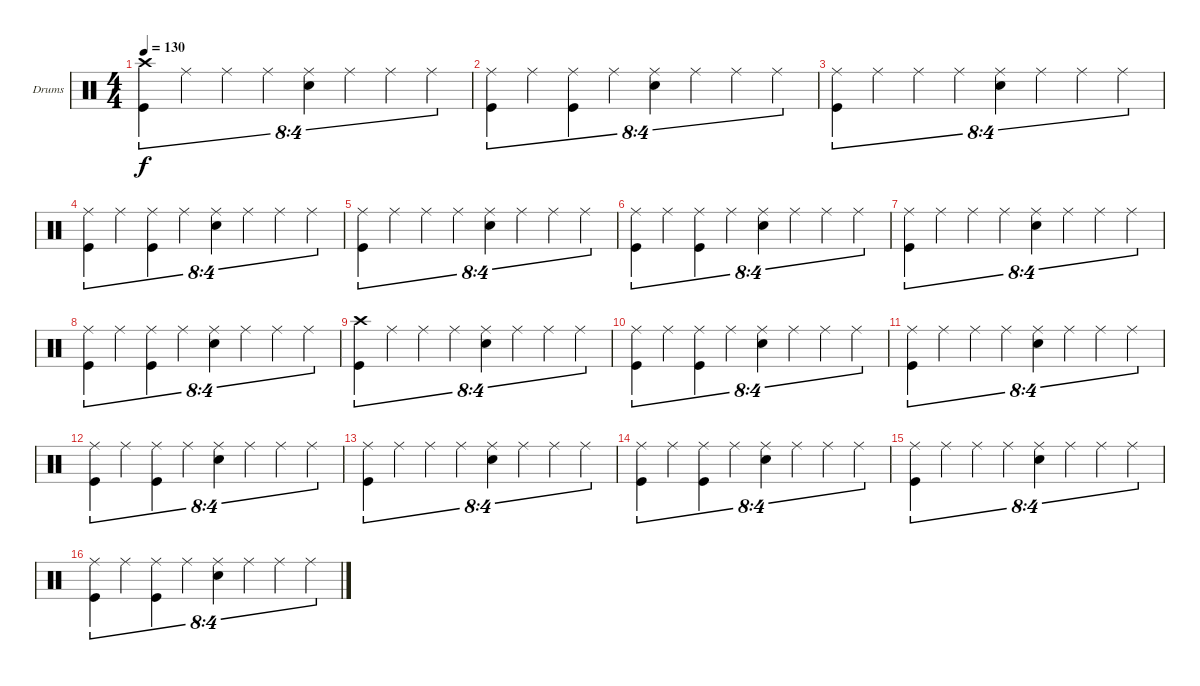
\defaultSystemsLayout 4
\bracketExtendMode groupsimilarinstruments
\firstSystemTrackNameOrientation horizontal
\otherSystemsTrackNameOrientation horizontal
\track ("Drumkit" "Drums") {instrument percussion}
\staff {score}
\articulation defaults
\ts (4 4)
\tempo 130
\clef neutral
\ks c
("Crash high (hit)" "Kick (hit)").4{tu (8 4) dy f} "Ride (middle)".4{tu (8 4)} "Ride (middle)".4{tu (8 4)} "Ride (middle)".4{tu (8 4)} ("Ride (middle)" "Snare (hit) 2").4{tu (8 4)} "Ride (middle)".4{tu (8 4)} "Ride (middle)".4{tu (8 4)} "Ride (middle)".4{tu (8 4)} |
("Ride (middle)" "Kick (hit)").4{tu (8 4)} "Ride (middle)".4{tu (8 4)} ("Ride (middle)" "Kick (hit)").4{tu (8 4)} "Ride (middle)".4{tu (8 4)} ("Ride (middle)" "Snare (hit) 2").4{tu (8 4)} "Ride (middle)".4{tu (8 4)} "Ride (middle)".4{tu (8 4)} "Ride (middle)".4{tu (8 4)} |
("Ride (middle)" "Kick (hit)").4{tu (8 4)} "Ride (middle)".4{tu (8 4)} "Ride (middle)".4{tu (8 4)} "Ride (middle)".4{tu (8 4)} ("Ride (middle)" "Snare (hit) 2").4{tu (8 4)} "Ride (middle)".4{tu (8 4)} "Ride (middle)".4{tu (8 4)} "Ride (middle)".4{tu (8 4)} |
("Ride (middle)" "Kick (hit)").4{tu (8 4)} "Ride (middle)".4{tu (8 4)} ("Ride (middle)" "Kick (hit)").4{tu (8 4)} "Ride (middle)".4{tu (8 4)} ("Ride (middle)" "Snare (hit) 2").4{tu (8 4)} "Ride (middle)".4{tu (8 4)} "Ride (middle)".4{tu (8 4)} "Ride (middle)".4{tu (8 4)} |
("Ride (middle)" "Kick (hit)").4{tu (8 4)} "Ride (middle)".4{tu (8 4)} "Ride (middle)".4{tu (8 4)} "Ride (middle)".4{tu (8 4)} ("Ride (middle)" "Snare (hit) 2").4{tu (8 4)} "Ride (middle)".4{tu (8 4)} "Ride (middle)".4{tu (8 4)} "Ride (middle)".4{tu (8 4)} |
("Ride (middle)" "Kick (hit)").4{tu (8 4)} "Ride (middle)".4{tu (8 4)} ("Ride (middle)" "Kick (hit)").4{tu (8 4)} "Ride (middle)".4{tu (8 4)} ("Ride (middle)" "Snare (hit) 2").4{tu (8 4)} "Ride (middle)".4{tu (8 4)} "Ride (middle)".4{tu (8 4)} "Ride (middle)".4{tu (8 4)} |
("Ride (middle)" "Kick (hit)").4{tu (8 4)} "Ride (middle)".4{tu (8 4)} "Ride (middle)".4{tu (8 4)} "Ride (middle)".4{tu (8 4)} ("Ride (middle)" "Snare (hit) 2").4{tu (8 4)} "Ride (middle)".4{tu (8 4)} "Ride (middle)".4{tu (8 4)} "Ride (middle)".4{tu (8 4)} |
("Ride (middle)" "Kick (hit)").4{tu (8 4)} "Ride (middle)".4{tu (8 4)} ("Ride (middle)" "Kick (hit)").4{tu (8 4)} "Ride (middle)".4{tu (8 4)} ("Ride (middle)" "Snare (hit) 2").4{tu (8 4)} "Ride (middle)".4{tu (8 4)} "Ride (middle)".4{tu (8 4)} "Ride (middle)".4{tu (8 4)} |
("Crash high (hit)" "Kick (hit)").4{tu (8 4)} "Ride (middle)".4{tu (8 4)} "Ride (middle)".4{tu (8 4)} "Ride (middle)".4{tu (8 4)} ("Ride (middle)" "Snare (hit) 2").4{tu (8 4)} "Ride (middle)".4{tu (8 4)} "Ride (middle)".4{tu (8 4)} "Ride (middle)".4{tu (8 4)} |
("Ride (middle)" "Kick (hit)").4{tu (8 4)} "Ride (middle)".4{tu (8 4)} ("Ride (middle)" "Kick (hit)").4{tu (8 4)} "Ride (middle)".4{tu (8 4)} ("Ride (middle)" "Snare (hit) 2").4{tu (8 4)} "Ride (middle)".4{tu (8 4)} "Ride (middle)".4{tu (8 4)} "Ride (middle)".4{tu (8 4)} |
("Ride (middle)" "Kick (hit)").4{tu (8 4)} "Ride (middle)".4{tu (8 4)} "Ride (middle)".4{tu (8 4)} "Ride (middle)".4{tu (8 4)} ("Ride (middle)" "Snare (hit) 2").4{tu (8 4)} "Ride (middle)".4{tu (8 4)} "Ride (middle)".4{tu (8 4)} "Ride (middle)".4{tu (8 4)} |
("Ride (middle)" "Kick (hit)").4{tu (8 4)} "Ride (middle)".4{tu (8 4)} ("Ride (middle)" "Kick (hit)").4{tu (8 4)} "Ride (middle)".4{tu (8 4)} ("Ride (middle)" "Snare (hit) 2").4{tu (8 4)} "Ride (middle)".4{tu (8 4)} "Ride (middle)".4{tu (8 4)} "Ride (middle)".4{tu (8 4)} |
("Ride (middle)" "Kick (hit)").4{tu (8 4)} "Ride (middle)".4{tu (8 4)} "Ride (middle)".4{tu (8 4)} "Ride (middle)".4{tu (8 4)} ("Ride (middle)" "Snare (hit) 2").4{tu (8 4)} "Ride (middle)".4{tu (8 4)} "Ride (middle)".4{tu (8 4)} "Ride (middle)".4{tu (8 4)} |
("Ride (middle)" "Kick (hit)").4{tu (8 4)} "Ride (middle)".4{tu (8 4)} ("Ride (middle)" "Kick (hit)").4{tu (8 4)} "Ride (middle)".4{tu (8 4)} ("Ride (middle)" "Snare (hit) 2").4{tu (8 4)} "Ride (middle)".4{tu (8 4)} "Ride (middle)".4{tu (8 4)} "Ride (middle)".4{tu (8 4)} |
("Ride (middle)" "Kick (hit)").4{tu (8 4)} "Ride (middle)".4{tu (8 4)} "Ride (middle)".4{tu (8 4)} "Ride (middle)".4{tu (8 4)} ("Ride (middle)" "Snare (hit) 2").4{tu (8 4)} "Ride (middle)".4{tu (8 4)} "Ride (middle)".4{tu (8 4)} "Ride (middle)".4{tu (8 4)} |
("Ride (middle)" "Kick (hit)").4{tu (8 4)} "Ride (middle)".4{tu (8 4)} ("Ride (middle)" "Kick (hit)").4{tu (8 4)} "Ride (middle)".4{tu (8 4)} ("Ride (middle)" "Snare (hit) 2").4{tu (8 4)} "Ride (middle)".4{tu (8 4)} "Ride (middle)".4{tu (8 4)} "Ride (middle)".4{tu (8 4)}
